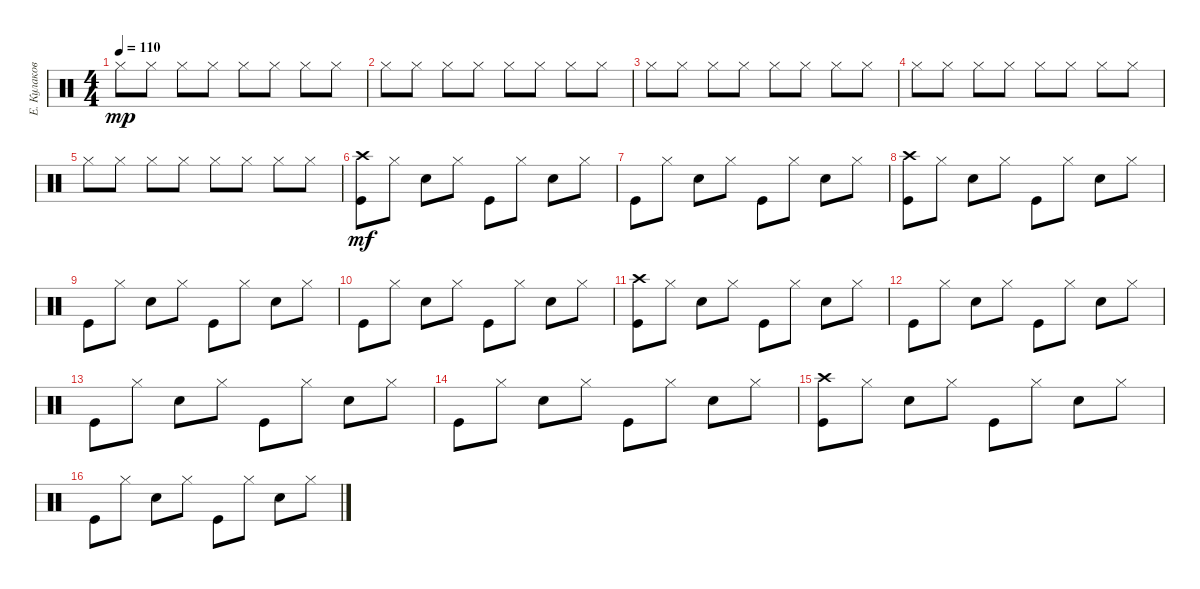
\track ("Е. Кулаков" "Е. Кулаков") {instrument percussion}
\staff {score}
\articulation defaults
\ts (4 4)
\tempo 110
\clef neutral
\ks c "Hi-Hat (closed)".8{dy mp} "Hi-Hat (closed)".8 "Hi-Hat (closed)".8 "Hi-Hat (closed)".8 "Hi-Hat (closed)".8 "Hi-Hat (closed)".8 "Hi-Hat (closed)".8 "Hi-Hat (closed)".8
|
"Hi-Hat (closed)".8 "Hi-Hat (closed)".8 "Hi-Hat (closed)".8 "Hi-Hat (closed)".8 "Hi-Hat (closed)".8 "Hi-Hat (closed)".8 "Hi-Hat (closed)".8 "Hi-Hat (closed)".8 |
"Hi-Hat (closed)".8 "Hi-Hat (closed)".8 "Hi-Hat (closed)".8 "Hi-Hat (closed)".8 "Hi-Hat (closed)".8 "Hi-Hat (closed)".8 "Hi-Hat (closed)".8 "Hi-Hat (closed)".8 |
"Hi-Hat (closed)".8 "Hi-Hat (closed)".8 "Hi-Hat (closed)".8 "Hi-Hat (closed)".8 "Hi-Hat (closed)".8 "Hi-Hat (closed)".8 "Hi-Hat (closed)".8 "Hi-Hat (closed)".8 |
"Hi-Hat (closed)".8 "Hi-Hat (closed)".8 "Hi-Hat (closed)".8 "Hi-Hat (closed)".8 "Hi-Hat (closed)".8 "Hi-Hat (closed)".8 "Hi-Hat (closed)".8 "Hi-Hat (closed)".8 |
("Kick (hit)" "Crash high (hit)").8{dy mf} "Hi-Hat (closed)".8 "Snare (hit) 2".8 "Hi-Hat (closed)".8 "Kick (hit)".8 "Hi-Hat (closed)".8 "Snare (hit) 2".8 "Hi-Hat (closed)".8 |
"Kick (hit)".8 "Hi-Hat (closed)".8 "Snare (hit) 2".8 "Hi-Hat (closed)".8 "Kick (hit)".8 "Hi-Hat (closed)".8 "Snare (hit) 2".8 "Hi-Hat (closed)".8 |
("Kick (hit)" "Crash high (hit)").8 "Hi-Hat (closed)".8 "Snare (hit) 2".8 "Hi-Hat (closed)".8 "Kick (hit)".8 "Hi-Hat (closed)".8 "Snare (hit) 2".8 "Hi-Hat (closed)".8 |
"Kick (hit)".8 "Hi-Hat (closed)".8 "Snare (hit) 2".8 "Hi-Hat (closed)".8 "Kick (hit)".8 "Hi-Hat (closed)".8 "Snare (hit) 2".8 "Hi-Hat (closed)".8 |
"Kick (hit)".8 "Hi-Hat (closed)".8 "Snare (hit) 2".8 "Hi-Hat (closed)".8 "Kick (hit)".8 "Hi-Hat (closed)".8 "Snare (hit) 2".8 "Hi-Hat (closed)".8 |
("Kick (hit)" "Crash high (hit)").8 "Hi-Hat (closed)".8 "Snare (hit) 2".8 "Hi-Hat (closed)".8 "Kick (hit)".8 "Hi-Hat (closed)".8 "Snare (hit) 2".8 "Hi-Hat (closed)".8 |
"Kick (hit)".8 "Hi-Hat (closed)".8 "Snare (hit) 2".8 "Hi-Hat (closed)".8 "Kick (hit)".8 "Hi-Hat (closed)".8 "Snare (hit) 2".8 "Hi-Hat (closed)".8 |
"Kick (hit)".8 "Hi-Hat (closed)".8 "Snare (hit) 2".8 "Hi-Hat (closed)".8 "Kick (hit)".8 "Hi-Hat (closed)".8 "Snare (hit) 2".8 "Hi-Hat (closed)".8 |
"Kick (hit)".8 "Hi-Hat (closed)".8 "Snare (hit) 2".8 "Hi-Hat (closed)".8 "Kick (hit)".8 "Hi-Hat (closed)".8 "Snare (hit) 2".8 "Hi-Hat (closed)".8 |
("Kick (hit)" "Crash high (hit)").8 "Hi-Hat (closed)".8 "Snare (hit) 2".8 "Hi-Hat (closed)".8 "Kick (hit)".8 "Hi-Hat (closed)".8 "Snare (hit) 2".8 "Hi-Hat (closed)".8 |
"Kick (hit)".8 "Hi-Hat (closed)".8 "Snare (hit) 2".8 "Hi-Hat (closed)".8 "Kick (hit)".8 "Hi-Hat (closed)".8 "Snare (hit) 2".8 "Hi-Hat (closed)".8
